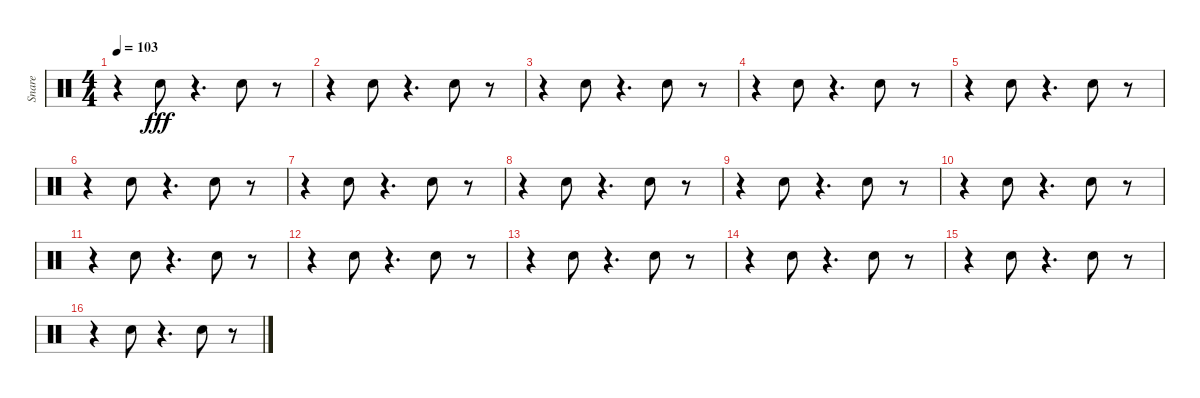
\track ("Snare" "Snare") {instrument percussion}
\staff {score}
\articulation defaults
\ts (4 4)
\tempo 103
\clef neutral
\ks c
r.4{dy fff} "Electric Snare (hit)".8 r.4{d} "Electric Snare (hit)".8 r.8 |
r.4 "Electric Snare (hit)".8 r.4{d} "Electric Snare (hit)".8 r.8 |
r.4 "Electric Snare (hit)".8 r.4{d} "Electric Snare (hit)".8 r.8 |
r.4 "Electric Snare (hit)".8 r.4{d} "Electric Snare (hit)".8 r.8 |
r.4 "Electric Snare (hit)".8 r.4{d} "Electric Snare (hit)".8 r.8 |
r.4 "Electric Snare (hit)".8 r.4{d} "Electric Snare (hit)".8 r.8 |
r.4 "Electric Snare (hit)".8 r.4{d} "Electric Snare (hit)".8 r.8 |
r.4 "Electric Snare (hit)".8 r.4{d} "Electric Snare (hit)".8 r.8 |
r.4 "Electric Snare (hit)".8 r.4{d} "Electric Snare (hit)".8 r.8 |
r.4 "Electric Snare (hit)".8 r.4{d} "Electric Snare (hit)".8 r.8 |
r.4 "Electric Snare (hit)".8 r.4{d} "Electric Snare (hit)".8 r.8 |
r.4 "Electric Snare (hit)".8 r.4{d} "Electric Snare (hit)".8 r.8 |
r.4 "Electric Snare (hit)".8 r.4{d} "Electric Snare (hit)".8 r.8 |
r.4 "Electric Snare (hit)".8 r.4{d} "Electric Snare (hit)".8 r.8 |
r.4 "Electric Snare (hit)".8 r.4{d} "Electric Snare (hit)".8 r.8 |
r.4 "Electric Snare (hit)".8 r.4{d} "Electric Snare (hit)".8 r.8
